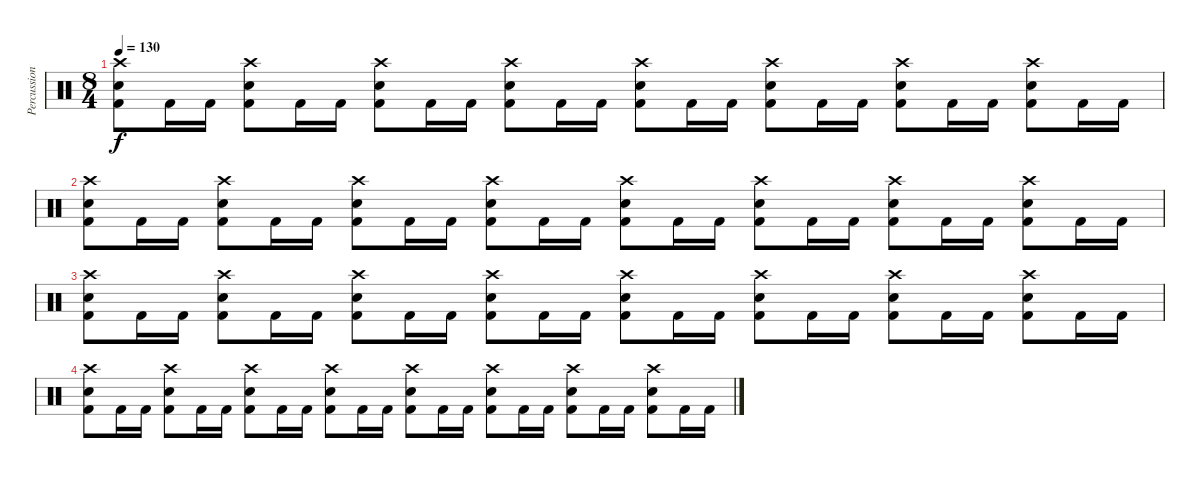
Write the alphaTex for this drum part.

\track ("Percussion" "Percussion") {instrument percussion}
\staff {score}
\articulation defaults
\ts (8 4)
\tempo 130
\clef neutral
\ks c
("Crash high (hit)" "Snare (hit) 2" "Kick (hit) 2").8{dy f} "Kick (hit) 2".16 "Kick (hit) 2".16 ("Crash high (hit)" "Snare (hit) 2" "Kick (hit) 2").8 "Kick (hit) 2".16 "Kick (hit) 2".16 ("Crash high (hit)" "Snare (hit) 2" "Kick (hit) 2").8 "Kick (hit) 2".16 "Kick (hit) 2".16 ("Crash high (hit)" "Snare (hit) 2" "Kick (hit) 2").8 "Kick (hit) 2".16 "Kick (hit) 2".16 ("Crash high (hit)" "Snare (hit) 2" "Kick (hit) 2").8 "Kick (hit) 2".16 "Kick (hit) 2".16 ("Crash high (hit)" "Snare (hit) 2" "Kick (hit) 2").8 "Kick (hit) 2".16 "Kick (hit) 2".16 ("Crash high (hit)" "Snare (hit) 2" "Kick (hit) 2").8 "Kick (hit) 2".16 "Kick (hit) 2".16 ("Crash high (hit)" "Snare (hit) 2" "Kick (hit) 2").8 "Kick (hit) 2".16 "Kick (hit) 2".16 |
("Crash high (hit)" "Snare (hit) 2" "Kick (hit) 2").8 "Kick (hit) 2".16 "Kick (hit) 2".16 ("Crash high (hit)" "Snare (hit) 2" "Kick (hit) 2").8 "Kick (hit) 2".16 "Kick (hit) 2".16 ("Crash high (hit)" "Snare (hit) 2" "Kick (hit) 2").8 "Kick (hit) 2".16 "Kick (hit) 2".16 ("Crash high (hit)" "Snare (hit) 2" "Kick (hit) 2").8 "Kick (hit) 2".16 "Kick (hit) 2".16 ("Crash high (hit)" "Snare (hit) 2" "Kick (hit) 2").8 "Kick (hit) 2".16 "Kick (hit) 2".16 ("Crash high (hit)" "Snare (hit) 2" "Kick (hit) 2").8 "Kick (hit) 2".16 "Kick (hit) 2".16 ("Crash high (hit)" "Snare (hit) 2" "Kick (hit) 2").8 "Kick (hit) 2".16 "Kick (hit) 2".16 ("Crash high (hit)" "Snare (hit) 2" "Kick (hit) 2").8 "Kick (hit) 2".16 "Kick (hit) 2".16 |
("Crash high (hit)" "Snare (hit) 2" "Kick (hit) 2").8 "Kick (hit) 2".16 "Kick (hit) 2".16 ("Crash high (hit)" "Snare (hit) 2" "Kick (hit) 2").8 "Kick (hit) 2".16 "Kick (hit) 2".16 ("Crash high (hit)" "Snare (hit) 2" "Kick (hit) 2").8 "Kick (hit) 2".16 "Kick (hit) 2".16 ("Crash high (hit)" "Snare (hit) 2" "Kick (hit) 2").8 "Kick (hit) 2".16 "Kick (hit) 2".16 ("Crash high (hit)" "Snare (hit) 2" "Kick (hit) 2").8 "Kick (hit) 2".16 "Kick (hit) 2".16 ("Crash high (hit)" "Snare (hit) 2" "Kick (hit) 2").8 "Kick (hit) 2".16 "Kick (hit) 2".16 ("Crash high (hit)" "Snare (hit) 2" "Kick (hit) 2").8 "Kick (hit) 2".16 "Kick (hit) 2".16 ("Crash high (hit)" "Snare (hit) 2" "Kick (hit) 2").8 "Kick (hit) 2".16 "Kick (hit) 2".16 |
("Crash high (hit)" "Snare (hit) 2" "Kick (hit) 2").8 "Kick (hit) 2".16 "Kick (hit) 2".16 ("Crash high (hit)" "Snare (hit) 2" "Kick (hit) 2").8 "Kick (hit) 2".16 "Kick (hit) 2".16 ("Crash high (hit)" "Snare (hit) 2" "Kick (hit) 2").8 "Kick (hit) 2".16 "Kick (hit) 2".16 ("Crash high (hit)" "Snare (hit) 2" "Kick (hit) 2").8 "Kick (hit) 2".16 "Kick (hit) 2".16 ("Crash high (hit)" "Snare (hit) 2" "Kick (hit) 2").8 "Kick (hit) 2".16 "Kick (hit) 2".16 ("Crash high (hit)" "Snare (hit) 2" "Kick (hit) 2").8 "Kick (hit) 2".16 "Kick (hit) 2".16 ("Crash high (hit)" "Snare (hit) 2" "Kick (hit) 2").8 "Kick (hit) 2".16 "Kick (hit) 2".16 ("Crash high (hit)" "Snare (hit) 2" "Kick (hit) 2").8 "Kick (hit) 2".16 "Kick (hit) 2".16
